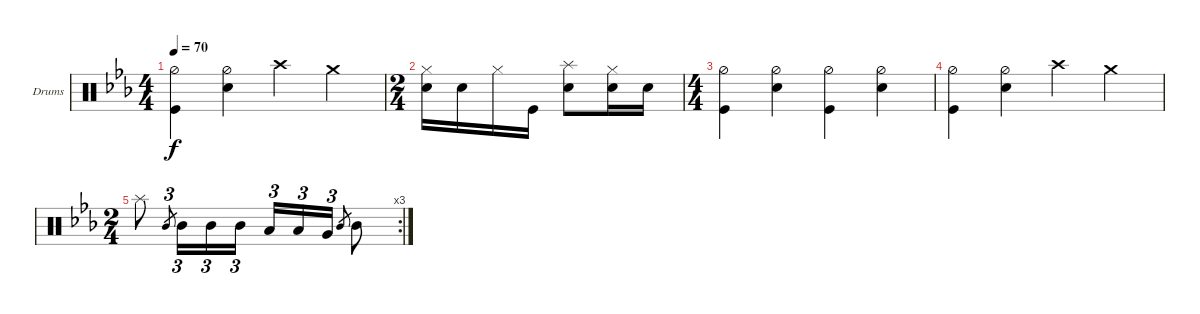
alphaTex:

\defaultSystemsLayout 4
\bracketExtendMode groupsimilarinstruments
\firstSystemTrackNameOrientation horizontal
\otherSystemsTrackNameOrientation horizontal
\track ("Drumkit" "Drums") {instrument percussion}
\staff {score}
\articulation defaults
\ts (4 4)
\tempo 70
\clef neutral
\ks cminor
("Hi-Hat (half)" "Kick (hit)").4{dy f} ("Hi-Hat (half)" "Snare (hit) 2").4 "Crash high (hit)".4 "Crash medium (hit)".4 |
\ts (2 4)
("Snare (hit) 2" "Hi-Hat (closed)").16 "Snare (hit) 2".16 "Hi-Hat (closed)".16 "Kick (hit)".16 ("Snare (hit) 2" "Splash (hit)").8 ("Snare (hit) 2" "Hi-Hat (closed)").16 "Snare (hit) 2".16 |
\ts (4 4)
("Hi-Hat (half)" "Kick (hit)").4 ("Hi-Hat (half)" "Snare (hit) 2").4 ("Hi-Hat (half)" "Kick (hit)").4 ("Hi-Hat (half)" "Snare (hit) 2").4 |
("Hi-Hat (half)" "Kick (hit)").4 ("Hi-Hat (half)" "Snare (hit) 2").4 "Crash high (hit)".4 "Crash medium (hit)".4 |
\rc 3
\ts (2 4)
"Splash (hit)".8 "Mid Tom (hit)".8{tu (3 2) gr} "Mid Tom (hit)".16{tu (3 2)} "Mid Tom (hit)".16{tu (3 2)} "Mid Tom (hit)".16{tu (3 2)} "Low Tom (hit)".16{tu (3 2)} "Low Tom (hit)".16{tu (3 2)} "Very Low Tom (hit)".16{tu (3 2)} "Mid Tom (hit)".8{gr} "Mid Tom (hit)".8
